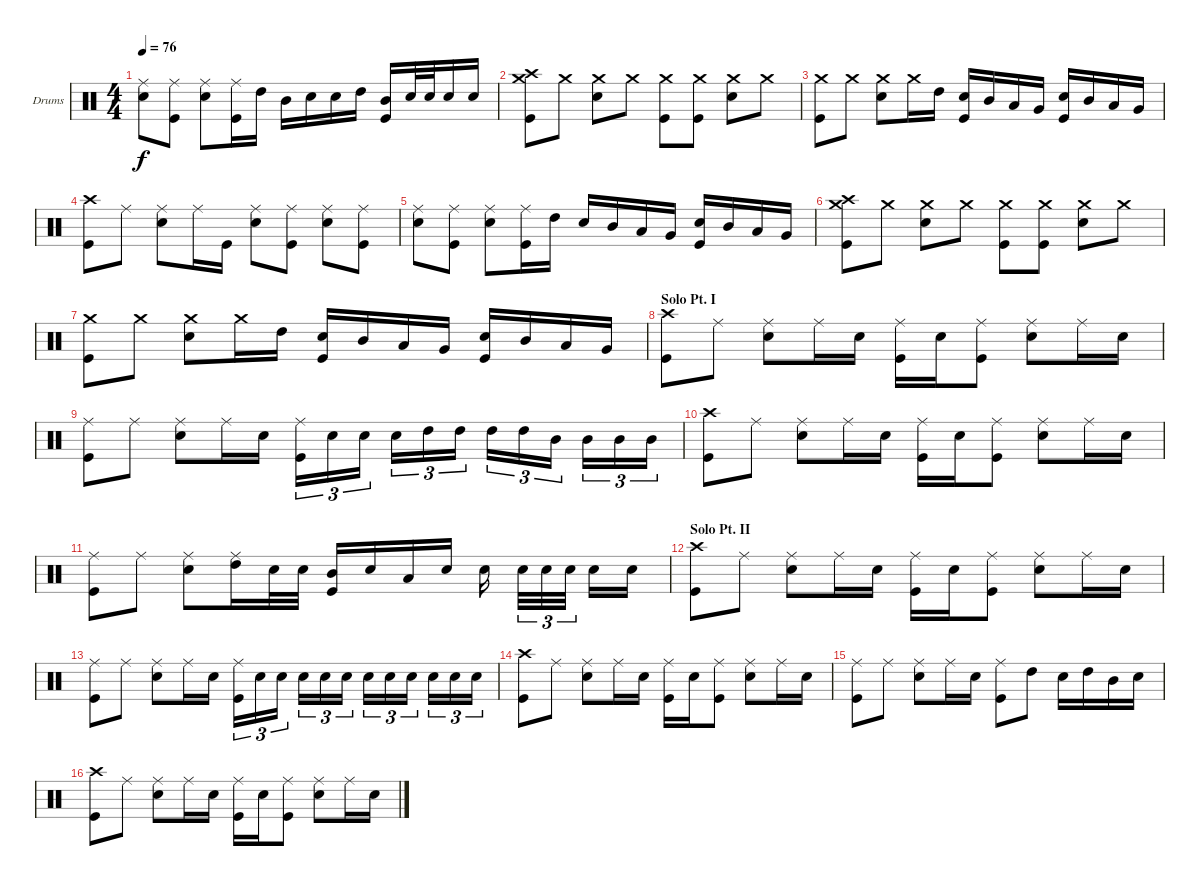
\bracketExtendMode groupsimilarinstruments
\firstSystemTrackNameOrientation horizontal
\otherSystemsTrackNameOrientation horizontal
\track ("Drums" "Drums") {instrument percussion}
\staff {score}
\articulation defaults
\ts (4 4)
\tempo 76
\clef neutral
\ks c
("Ride (middle)" "Snare (hit) 2").8{dy f} ("Ride (middle)" "Kick (hit)").8 ("Ride (middle)" "Snare (hit) 2").8 ("Ride (middle)" "Kick (hit)").16 "High Tom (hit)".16 "Mid Tom (hit)".16 "Snare (hit) 2".16 "Snare (hit) 2".16 "High Tom (hit)".16 ("Mid Tom (hit)" "Kick (hit)").16 "Snare (hit) 2".32 "Snare (hit) 2".32 "Snare (hit) 2".16 "Snare (hit) 2".16 |
("Crash high (hit)" "Crash medium (hit)" "Kick (hit)").8 "Crash medium (hit)".8 ("Crash medium (hit)" "Snare (hit) 2").8 "Crash medium (hit)".8 ("Crash medium (hit)" "Kick (hit)").8 ("Crash medium (hit)" "Kick (hit)").8 ("Crash medium (hit)" "Snare (hit) 2").8 "Crash medium (hit)".8 |
("Crash medium (hit)" "Kick (hit)").8 "Crash medium (hit)".8 ("Crash medium (hit)" "Snare (hit) 2").8 "Crash medium (hit)".16 "High Tom (hit)".16 ("Snare (hit) 2" "Kick (hit)").16 "Mid Tom (hit)".16 "Low Tom (hit)".16 "Very Low Tom (hit)".16 ("Snare (hit) 2" "Kick (hit)").16 "Mid Tom (hit)".16 "Low Tom (hit)".16 "Very Low Tom (hit)".16 |
("Crash high (hit)" "Kick (hit)").8 "Ride (middle)".8 ("Ride (middle)" "Snare (hit) 2").8 "Ride (middle)".16 "Kick (hit)".16 ("Ride (middle)" "Snare (hit) 2").8 ("Ride (middle)" "Kick (hit)").8 ("Ride (middle)" "Snare (hit) 2").8 ("Ride (middle)" "Kick (hit)").8 |
("Ride (middle)" "Snare (hit) 2").8 ("Ride (middle)" "Kick (hit)").8 ("Ride (middle)" "Snare (hit) 2").8 ("Ride (middle)" "Kick (hit)").16 "High Tom (hit)".16 "Snare (hit) 2".16 "Mid Tom (hit)".16 "Low Tom (hit)".16 "Very Low Tom (hit)".16 ("Snare (hit) 2" "Kick (hit)").16 "Mid Tom (hit)".16 "Low Tom (hit)".16 "Very Low Tom (hit)".16 |
("Crash high (hit)" "Crash medium (hit)" "Kick (hit)").8 "Crash medium (hit)".8 ("Crash medium (hit)" "Snare (hit) 2").8 "Crash medium (hit)".8 ("Crash medium (hit)" "Kick (hit)").8 ("Crash medium (hit)" "Kick (hit)").8 ("Crash medium (hit)" "Snare (hit) 2").8 "Crash medium (hit)".8 |
("Crash medium (hit)" "Kick (hit)").8 "Crash medium (hit)".8 ("Crash medium (hit)" "Snare (hit) 2").8 "Crash medium (hit)".16 "High Tom (hit)".16 ("Snare (hit) 2" "Kick (hit)").16 "Mid Tom (hit)".16 "Low Tom (hit)".16 "Very Low Tom (hit)".16 ("Snare (hit) 2" "Kick (hit)").16 "Mid Tom (hit)".16 "Low Tom (hit)".16 "Very Low Tom (hit)".16 |
\section ("" "Solo Pt. I")
("Crash high (hit)" "Kick (hit)").8 "Ride (middle)".8 ("Ride (middle)" "Snare (hit) 2").8 "Ride (middle)".16 "Snare (hit) 2".16 ("Ride (middle)" "Kick (hit)").16 "Snare (hit) 2".16 ("Ride (middle)" "Kick (hit)").8 ("Ride (middle)" "Snare (hit) 2").8 "Ride (middle)".16 "Snare (hit) 2".16 |
("Ride (middle)" "Kick (hit)").8 "Ride (middle)".8 ("Ride (middle)" "Snare (hit) 2").8 "Ride (middle)".16 "Snare (hit) 2".16 ("Ride (middle)" "Kick (hit)").16{tu (3 2)} "Snare (hit) 2".16{tu (3 2)} "Snare (hit) 2".16{tu (3 2)} "Snare (hit) 2".16{tu (3 2)} "High Tom (hit)".16{tu (3 2)} "High Tom (hit)".16{tu (3 2)} "High Tom (hit)".16{tu (3 2)} "High Tom (hit)".16{tu (3 2)} "Mid Tom (hit)".16{tu (3 2)} "Mid Tom (hit)".16{tu (3 2)} "Mid Tom (hit)".16{tu (3 2)} "Mid Tom (hit)".16{tu (3 2)} |
("Crash high (hit)" "Kick (hit)").8 "Ride (middle)".8 ("Ride (middle)" "Snare (hit) 2").8 "Ride (middle)".16 "Snare (hit) 2".16 ("Ride (middle)" "Kick (hit)").16 "Snare (hit) 2".16 ("Ride (middle)" "Kick (hit)").8 ("Ride (middle)" "Snare (hit) 2").8 "Ride (middle)".16 "Snare (hit) 2".16 |
("Ride (middle)" "Kick (hit)").8 "Ride (middle)".8 ("Ride (middle)" "Snare (hit) 2").8 ("Ride (middle)" "High Tom (hit)").16 "Snare (hit) 2".32 "Snare (hit) 2".32 ("Mid Tom (hit)" "Kick (hit)").16 "Snare (hit) 2".16 "Low Tom (hit)".16 "Snare (hit) 2".16 "Snare (hit) 2".16 "Snare (hit) 2".32{tu (3 2)} "Snare (hit) 2".32{tu (3 2)} "Snare (hit) 2".32{tu (3 2)} "Snare (hit) 2".16 "Snare (hit) 2".16 |
\section ("" "Solo Pt. II")
("Crash high (hit)" "Kick (hit)").8 "Ride (middle)".8 ("Ride (middle)" "Snare (hit) 2").8 "Ride (middle)".16 "Snare (hit) 2".16 ("Ride (middle)" "Kick (hit)").16 "Snare (hit) 2".16 ("Ride (middle)" "Kick (hit)").8 ("Ride (middle)" "Snare (hit) 2").8 "Ride (middle)".16 "Snare (hit) 2".16 |
("Ride (middle)" "Kick (hit)").8 "Ride (middle)".8 ("Ride (middle)" "Snare (hit) 2").8 "Ride (middle)".16 "Snare (hit) 2".16 ("Ride (middle)" "Kick (hit)").16{tu (3 2)} "Snare (hit) 2".16{tu (3 2)} "Snare (hit) 2".16{tu (3 2)} "Snare (hit) 2".16{tu (3 2)} "Snare (hit) 2".16{tu (3 2)} "Snare (hit) 2".16{tu (3 2)} "Snare (hit) 2".16{tu (3 2)} "Snare (hit) 2".16{tu (3 2)} "Snare (hit) 2".16{tu (3 2)} "Snare (hit) 2".16{tu (3 2)} "Snare (hit) 2".16{tu (3 2)} "Snare (hit) 2".16{tu (3 2)} |
("Crash high (hit)" "Kick (hit)").8 "Ride (middle)".8 ("Ride (middle)" "Snare (hit) 2").8 "Ride (middle)".16 "Snare (hit) 2".16 ("Ride (middle)" "Kick (hit)").16 "Snare (hit) 2".16 ("Ride (middle)" "Kick (hit)").8 ("Ride (middle)" "Snare (hit) 2").8 "Ride (middle)".16 "Snare (hit) 2".16 |
("Ride (middle)" "Kick (hit)").8 "Ride (middle)".8 ("Ride (middle)" "Snare (hit) 2").8 "Ride (middle)".16 "Snare (hit) 2".16 ("Ride (middle)" "Kick (hit)").8 "High Tom (hit)".8 "Snare (hit) 2".16 "High Tom (hit)".16 "Mid Tom (hit)".16 "Snare (hit) 2".16 |
("Crash high (hit)" "Kick (hit)").8 "Ride (middle)".8 ("Ride (middle)" "Snare (hit) 2").8 "Ride (middle)".16 "Snare (hit) 2".16 ("Ride (middle)" "Kick (hit)").16 "Snare (hit) 2".16 ("Ride (middle)" "Kick (hit)").8 ("Ride (middle)" "Snare (hit) 2").8 "Ride (middle)".16 "Snare (hit) 2".16
